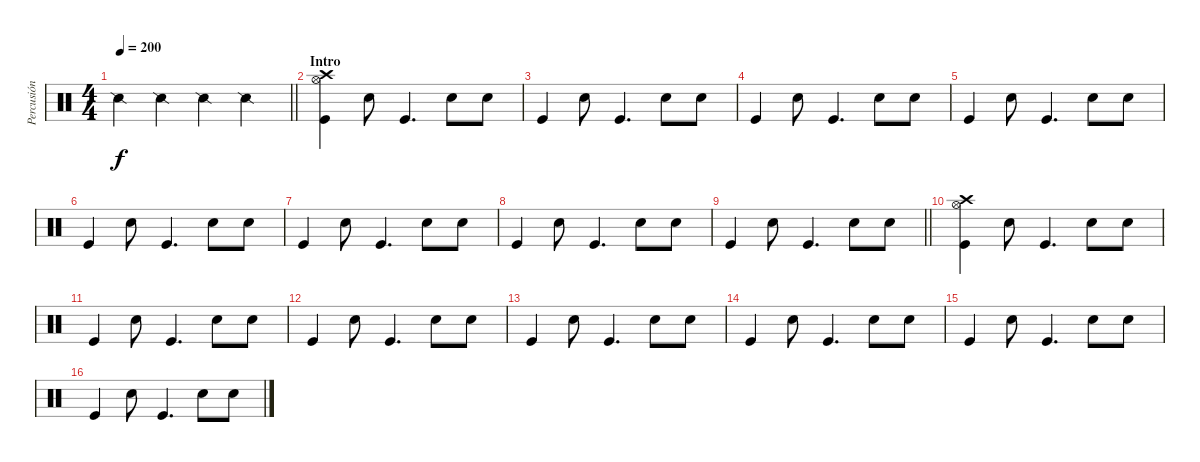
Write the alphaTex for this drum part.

\track ("Percusión" "Percusión") {instrument percussion}
\staff {score}
\articulation defaults
\ts (4 4)
\tempo 200
\clef neutral
\barLineRight lightlight
\ks c "Snare (side stick) 2".4{dy f} "Snare (side stick) 2".4 "Snare (side stick) 2".4 "Snare (side stick) 2".4
|
\section ("" "Intro")
("Hi-Hat (open)" "Crash high (hit)" "Kick (hit)").4 "Snare (hit) 2".8 "Kick (hit)".4{d} "Snare (hit) 2".8 "Snare (hit) 2".8 |
"Kick (hit)".4 "Snare (hit) 2".8 "Kick (hit)".4{d} "Snare (hit) 2".8 "Snare (hit) 2".8 |
"Kick (hit)".4 "Snare (hit) 2".8 "Kick (hit)".4{d} "Snare (hit) 2".8 "Snare (hit) 2".8 |
"Kick (hit)".4 "Snare (hit) 2".8 "Kick (hit)".4{d} "Snare (hit) 2".8 "Snare (hit) 2".8 |
"Kick (hit)".4 "Snare (hit) 2".8 "Kick (hit)".4{d} "Snare (hit) 2".8 "Snare (hit) 2".8 |
"Kick (hit)".4 "Snare (hit) 2".8 "Kick (hit)".4{d} "Snare (hit) 2".8 "Snare (hit) 2".8 |
"Kick (hit)".4 "Snare (hit) 2".8 "Kick (hit)".4{d} "Snare (hit) 2".8 "Snare (hit) 2".8 |
\barLineRight lightlight "Kick (hit)".4 "Snare (hit) 2".8 "Kick (hit)".4{d} "Snare (hit) 2".8 "Snare (hit) 2".8
|
\section ("" "")
("Hi-Hat (open)" "Crash high (hit)" "Kick (hit)").4 "Snare (hit) 2".8 "Kick (hit)".4{d} "Snare (hit) 2".8 "Snare (hit) 2".8 |
"Kick (hit)".4 "Snare (hit) 2".8 "Kick (hit)".4{d} "Snare (hit) 2".8 "Snare (hit) 2".8 |
"Kick (hit)".4 "Snare (hit) 2".8 "Kick (hit)".4{d} "Snare (hit) 2".8 "Snare (hit) 2".8 |
"Kick (hit)".4 "Snare (hit) 2".8 "Kick (hit)".4{d} "Snare (hit) 2".8 "Snare (hit) 2".8 |
"Kick (hit)".4 "Snare (hit) 2".8 "Kick (hit)".4{d} "Snare (hit) 2".8 "Snare (hit) 2".8 |
"Kick (hit)".4 "Snare (hit) 2".8 "Kick (hit)".4{d} "Snare (hit) 2".8 "Snare (hit) 2".8 |
"Kick (hit)".4 "Snare (hit) 2".8 "Kick (hit)".4{d} "Snare (hit) 2".8 "Snare (hit) 2".8
